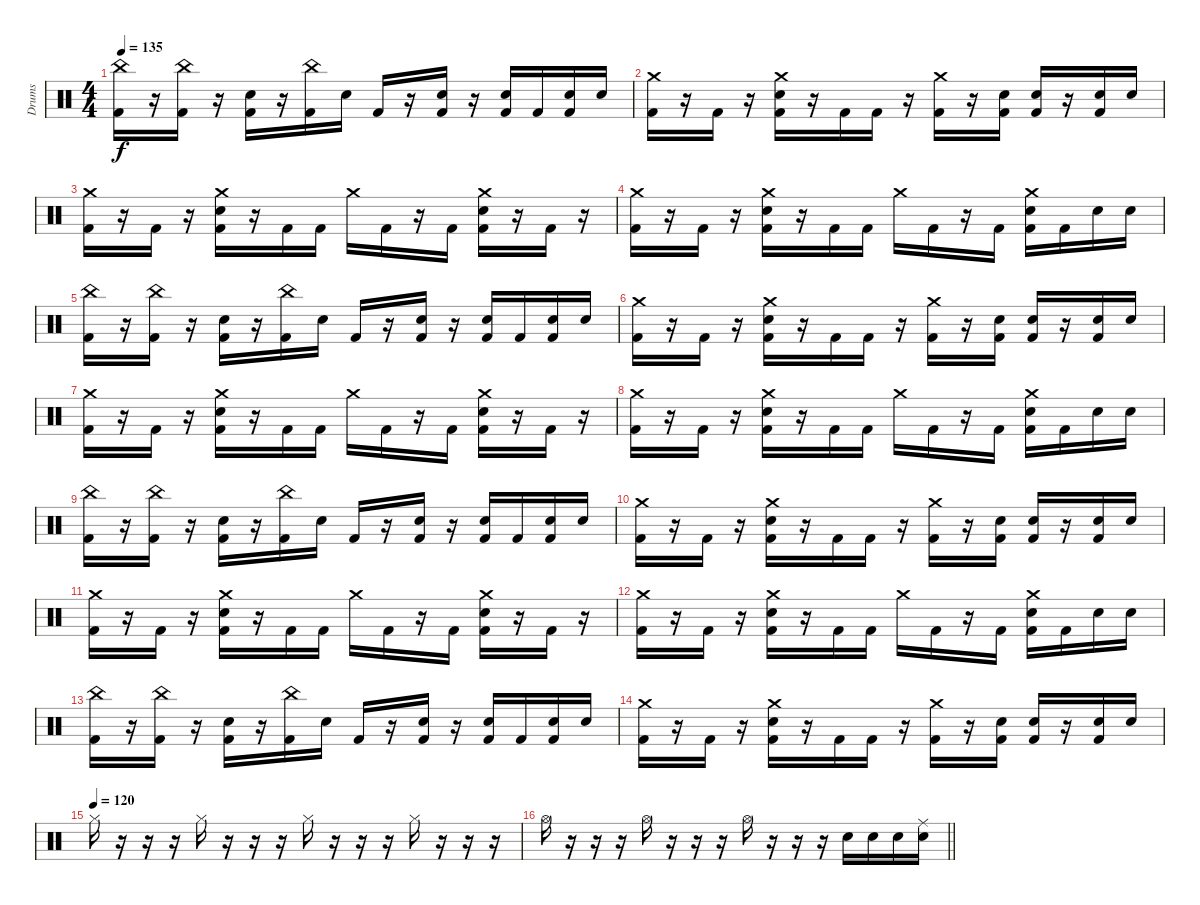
\track ("Drums" "Drums") {instrument percussion}
\staff {score}
\articulation defaults
\ts (4 4)
\tempo 135
\clef neutral
\ks c
("China (hit)" "Kick (hit) 2").16{dy f} r.16 ("China (hit)" "Kick (hit) 2").16 r.16 ("Electric Snare (hit)" "Kick (hit) 2").16 r.16 ("China (hit)" "Kick (hit) 2").16 "Electric Snare (hit)".16 "Kick (hit) 2".16 r.16 ("Electric Snare (hit)" "Kick (hit) 2").16 r.16 ("Electric Snare (hit)" "Kick (hit) 2").16 "Kick (hit) 2".16 ("Electric Snare (hit)" "Kick (hit) 2").16 "Electric Snare (hit)".16 |
("Crash medium (hit)" "Kick (hit) 2").16 r.16 "Kick (hit) 2".16 r.16 ("Crash medium (hit)" "Electric Snare (hit)" "Kick (hit) 2").16 r.16 "Kick (hit) 2".16 "Kick (hit) 2".16 r.16 ("Crash medium (hit)" "Kick (hit) 2").16 r.16 ("Electric Snare (hit)" "Kick (hit) 2").16 ("Electric Snare (hit)" "Kick (hit) 2").16 r.16 ("Electric Snare (hit)" "Kick (hit) 2").16 "Electric Snare (hit)".16 |
("Crash medium (hit)" "Kick (hit) 2").16 r.16 "Kick (hit) 2".16 r.16 ("Crash medium (hit)" "Electric Snare (hit)" "Kick (hit) 2").16 r.16 "Kick (hit) 2".16 "Kick (hit) 2".16 "Crash medium (hit)".16 "Kick (hit) 2".16 r.16 "Kick (hit) 2".16 ("Crash medium (hit)" "Electric Snare (hit)" "Kick (hit) 2").16 r.16 "Kick (hit) 2".16 r.16 |
("Crash medium (hit)" "Kick (hit) 2").16 r.16 "Kick (hit) 2".16 r.16 ("Crash medium (hit)" "Electric Snare (hit)" "Kick (hit) 2").16 r.16 "Kick (hit) 2".16 "Kick (hit) 2".16 "Crash medium (hit)".16 "Kick (hit) 2".16 r.16 "Kick (hit) 2".16 ("Crash medium (hit)" "Electric Snare (hit)" "Kick (hit) 2").16 "Kick (hit) 2".16 "Electric Snare (hit)".16 "Electric Snare (hit)".16 |
("China (hit)" "Kick (hit) 2").16 r.16 ("China (hit)" "Kick (hit) 2").16 r.16 ("Electric Snare (hit)" "Kick (hit) 2").16 r.16 ("China (hit)" "Kick (hit) 2").16 "Electric Snare (hit)".16 "Kick (hit) 2".16 r.16 ("Electric Snare (hit)" "Kick (hit) 2").16 r.16 ("Electric Snare (hit)" "Kick (hit) 2").16 "Kick (hit) 2".16 ("Electric Snare (hit)" "Kick (hit) 2").16 "Electric Snare (hit)".16 |
("Crash medium (hit)" "Kick (hit) 2").16 r.16 "Kick (hit) 2".16 r.16 ("Crash medium (hit)" "Electric Snare (hit)" "Kick (hit) 2").16 r.16 "Kick (hit) 2".16 "Kick (hit) 2".16 r.16 ("Crash medium (hit)" "Kick (hit) 2").16 r.16 ("Electric Snare (hit)" "Kick (hit) 2").16 ("Electric Snare (hit)" "Kick (hit) 2").16 r.16 ("Electric Snare (hit)" "Kick (hit) 2").16 "Electric Snare (hit)".16 |
("Crash medium (hit)" "Kick (hit) 2").16 r.16 "Kick (hit) 2".16 r.16 ("Crash medium (hit)" "Electric Snare (hit)" "Kick (hit) 2").16 r.16 "Kick (hit) 2".16 "Kick (hit) 2".16 "Crash medium (hit)".16 "Kick (hit) 2".16 r.16 "Kick (hit) 2".16 ("Crash medium (hit)" "Electric Snare (hit)" "Kick (hit) 2").16 r.16 "Kick (hit) 2".16 r.16 |
("Crash medium (hit)" "Kick (hit) 2").16 r.16 "Kick (hit) 2".16 r.16 ("Crash medium (hit)" "Electric Snare (hit)" "Kick (hit) 2").16 r.16 "Kick (hit) 2".16 "Kick (hit) 2".16 "Crash medium (hit)".16 "Kick (hit) 2".16 r.16 "Kick (hit) 2".16 ("Crash medium (hit)" "Electric Snare (hit)" "Kick (hit) 2").16 "Kick (hit) 2".16 "Electric Snare (hit)".16 "Electric Snare (hit)".16 |
("China (hit)" "Kick (hit) 2").16 r.16 ("China (hit)" "Kick (hit) 2").16 r.16 ("Electric Snare (hit)" "Kick (hit) 2").16 r.16 ("China (hit)" "Kick (hit) 2").16 "Electric Snare (hit)".16 "Kick (hit) 2".16 r.16 ("Electric Snare (hit)" "Kick (hit) 2").16 r.16 ("Electric Snare (hit)" "Kick (hit) 2").16 "Kick (hit) 2".16 ("Electric Snare (hit)" "Kick (hit) 2").16 "Electric Snare (hit)".16 |
("Crash medium (hit)" "Kick (hit) 2").16 r.16 "Kick (hit) 2".16 r.16 ("Crash medium (hit)" "Electric Snare (hit)" "Kick (hit) 2").16 r.16 "Kick (hit) 2".16 "Kick (hit) 2".16 r.16 ("Crash medium (hit)" "Kick (hit) 2").16 r.16 ("Electric Snare (hit)" "Kick (hit) 2").16 ("Electric Snare (hit)" "Kick (hit) 2").16 r.16 ("Electric Snare (hit)" "Kick (hit) 2").16 "Electric Snare (hit)".16 |
("Crash medium (hit)" "Kick (hit) 2").16 r.16 "Kick (hit) 2".16 r.16 ("Crash medium (hit)" "Electric Snare (hit)" "Kick (hit) 2").16 r.16 "Kick (hit) 2".16 "Kick (hit) 2".16 "Crash medium (hit)".16 "Kick (hit) 2".16 r.16 "Kick (hit) 2".16 ("Crash medium (hit)" "Electric Snare (hit)" "Kick (hit) 2").16 r.16 "Kick (hit) 2".16 r.16 |
("Crash medium (hit)" "Kick (hit) 2").16 r.16 "Kick (hit) 2".16 r.16 ("Crash medium (hit)" "Electric Snare (hit)" "Kick (hit) 2").16 r.16 "Kick (hit) 2".16 "Kick (hit) 2".16 "Crash medium (hit)".16 "Kick (hit) 2".16 r.16 "Kick (hit) 2".16 ("Crash medium (hit)" "Electric Snare (hit)" "Kick (hit) 2").16 "Kick (hit) 2".16 "Electric Snare (hit)".16 "Electric Snare (hit)".16 |
("China (hit)" "Kick (hit) 2").16 r.16 ("China (hit)" "Kick (hit) 2").16 r.16 ("Electric Snare (hit)" "Kick (hit) 2").16 r.16 ("China (hit)" "Kick (hit) 2").16 "Electric Snare (hit)".16 "Kick (hit) 2".16 r.16 ("Electric Snare (hit)" "Kick (hit) 2").16 r.16 ("Electric Snare (hit)" "Kick (hit) 2").16 "Kick (hit) 2".16 ("Electric Snare (hit)" "Kick (hit) 2").16 "Electric Snare (hit)".16 |
("Crash medium (hit)" "Kick (hit) 2").16 r.16 "Kick (hit) 2".16 r.16 ("Crash medium (hit)" "Electric Snare (hit)" "Kick (hit) 2").16 r.16 "Kick (hit) 2".16 "Kick (hit) 2".16 r.16 ("Crash medium (hit)" "Kick (hit) 2").16 r.16 ("Electric Snare (hit)" "Kick (hit) 2").16 ("Electric Snare (hit)" "Kick (hit) 2").16 r.16 ("Electric Snare (hit)" "Kick (hit) 2").16 "Electric Snare (hit)".16 |
\tempo (120)
"Hi-Hat (closed)".16 r.16 r.16 r.16 "Hi-Hat (closed)".16 r.16 r.16 r.16 "Hi-Hat (closed)".16 r.16 r.16 r.16 "Hi-Hat (closed)".16 r.16 r.16 r.16 |
\barLineRight lightlight "Hi-Hat (open)".16
r.16 r.16 r.16 "Hi-Hat (open)".16 r.16 r.16 r.16 "Hi-Hat (open)".16 r.16 r.16 r.16 "Electric Snare (hit)".16 "Electric Snare (hit)".16 "Electric Snare (hit)".16 ("Ride (middle)" "Electric Snare (hit)").16
